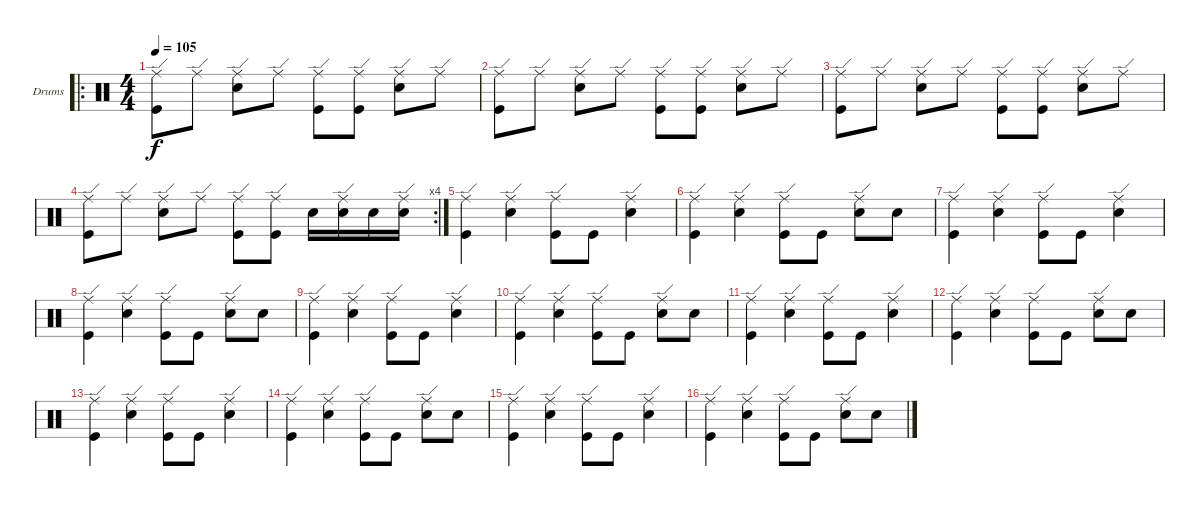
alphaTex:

\defaultSystemsLayout 4
\bracketExtendMode groupsimilarinstruments
\firstSystemTrackNameOrientation horizontal
\otherSystemsTrackNameOrientation horizontal
\track ("Drumkit" "Drums") {instrument percussion}
\staff {score}
\articulation defaults
\ro
\ts (4 4)
\tempo 105
\clef neutral
\ks c
("Kick (hit)" "Ride (edge)").8{dy f} "Ride (edge)".8 ("Snare (hit) 2" "Ride (edge)").8 "Ride (edge)".8 ("Kick (hit)" "Ride (edge)").8 ("Kick (hit)" "Ride (edge)").8 ("Snare (hit) 2" "Ride (edge)").8 "Ride (edge)".8 |
("Kick (hit)" "Ride (edge)").8 "Ride (edge)".8 ("Snare (hit) 2" "Ride (edge)").8 "Ride (edge)".8 ("Kick (hit)" "Ride (edge)").8 ("Kick (hit)" "Ride (edge)").8 ("Snare (hit) 2" "Ride (edge)").8 "Ride (edge)".8 |
("Kick (hit)" "Ride (edge)").8 "Ride (edge)".8 ("Snare (hit) 2" "Ride (edge)").8 "Ride (edge)".8 ("Kick (hit)" "Ride (edge)").8 ("Kick (hit)" "Ride (edge)").8 ("Snare (hit) 2" "Ride (edge)").8 "Ride (edge)".8 |
\rc 4
("Kick (hit)" "Ride (edge)").8 "Ride (edge)".8 ("Snare (hit) 2" "Ride (edge)").8 "Ride (edge)".8 ("Kick (hit)" "Ride (edge)").8 ("Kick (hit)" "Ride (edge)").8 "Snare (hit) 2".16 ("Snare (hit) 2" "Ride (edge)").16 "Snare (hit) 2".16 ("Snare (hit) 2" "Ride (edge)").16 |
("Ride (edge)" "Kick (hit)").4 ("Ride (edge)" "Snare (hit) 2").4 ("Ride (edge)" "Kick (hit)").8 "Kick (hit)".8 ("Ride (edge)" "Snare (hit) 2").4 |
("Ride (edge)" "Kick (hit)").4 ("Ride (edge)" "Snare (hit) 2").4 ("Ride (edge)" "Kick (hit)").8 "Kick (hit)".8 ("Ride (edge)" "Snare (hit) 2").8 "Snare (hit) 2".8 |
("Ride (edge)" "Kick (hit)").4 ("Ride (edge)" "Snare (hit) 2").4 ("Ride (edge)" "Kick (hit)").8 "Kick (hit)".8 ("Ride (edge)" "Snare (hit) 2").4 |
("Ride (edge)" "Kick (hit)").4 ("Ride (edge)" "Snare (hit) 2").4 ("Ride (edge)" "Kick (hit)").8 "Kick (hit)".8 ("Ride (edge)" "Snare (hit) 2").8 "Snare (hit) 2".8 |
("Ride (edge)" "Kick (hit)").4 ("Ride (edge)" "Snare (hit) 2").4 ("Ride (edge)" "Kick (hit)").8 "Kick (hit)".8 ("Ride (edge)" "Snare (hit) 2").4 |
("Ride (edge)" "Kick (hit)").4 ("Ride (edge)" "Snare (hit) 2").4 ("Ride (edge)" "Kick (hit)").8 "Kick (hit)".8 ("Ride (edge)" "Snare (hit) 2").8 "Snare (hit) 2".8 |
("Ride (edge)" "Kick (hit)").4 ("Ride (edge)" "Snare (hit) 2").4 ("Ride (edge)" "Kick (hit)").8 "Kick (hit)".8 ("Ride (edge)" "Snare (hit) 2").4 |
("Ride (edge)" "Kick (hit)").4 ("Ride (edge)" "Snare (hit) 2").4 ("Ride (edge)" "Kick (hit)").8 "Kick (hit)".8 ("Ride (edge)" "Snare (hit) 2").8 "Snare (hit) 2".8 |
("Ride (edge)" "Kick (hit)").4 ("Ride (edge)" "Snare (hit) 2").4 ("Ride (edge)" "Kick (hit)").8 "Kick (hit)".8 ("Ride (edge)" "Snare (hit) 2").4 |
("Ride (edge)" "Kick (hit)").4 ("Ride (edge)" "Snare (hit) 2").4 ("Ride (edge)" "Kick (hit)").8 "Kick (hit)".8 ("Ride (edge)" "Snare (hit) 2").8 "Snare (hit) 2".8 |
("Ride (edge)" "Kick (hit)").4 ("Ride (edge)" "Snare (hit) 2").4 ("Ride (edge)" "Kick (hit)").8 "Kick (hit)".8 ("Ride (edge)" "Snare (hit) 2").4 |
("Ride (edge)" "Kick (hit)").4 ("Ride (edge)" "Snare (hit) 2").4 ("Ride (edge)" "Kick (hit)").8 "Kick (hit)".8 ("Ride (edge)" "Snare (hit) 2").8 "Snare (hit) 2".8
